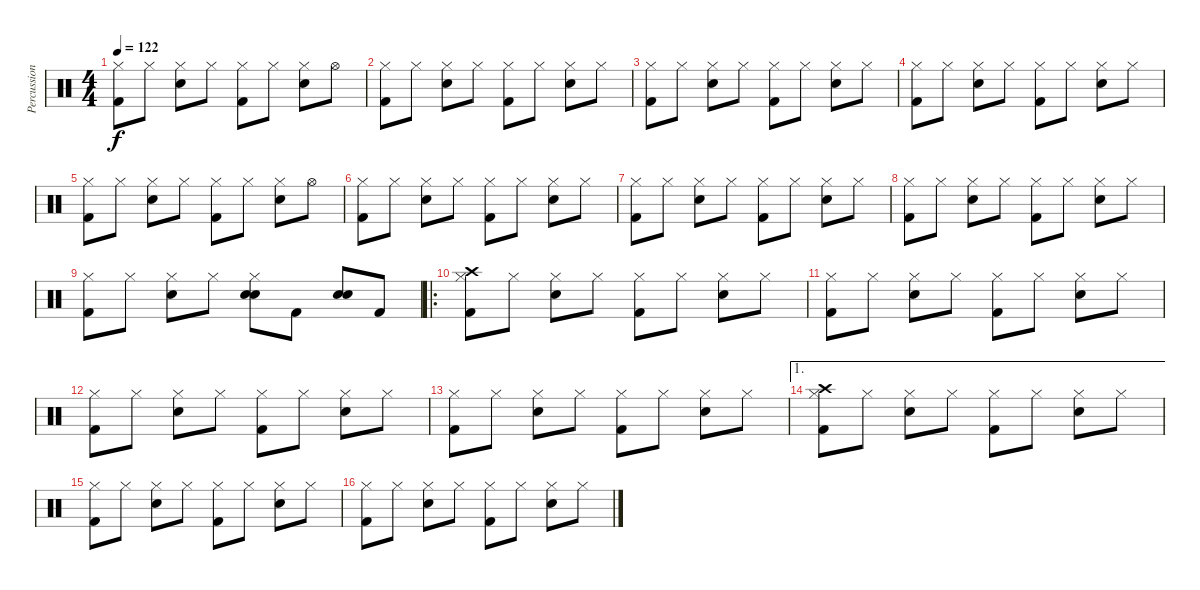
\track ("Percussion" "Percussion") {instrument percussion}
\staff {score}
\articulation defaults
\ts (4 4)
\tempo 122
\clef neutral
\ks c
("Hi-Hat (closed)" "Kick (hit) 2").8{dy f} "Hi-Hat (closed)".8 ("Hi-Hat (closed)" "Snare (hit) 2").8 "Hi-Hat (closed)".8 ("Hi-Hat (closed)" "Kick (hit) 2").8 "Hi-Hat (closed)".8 ("Hi-Hat (closed)" "Snare (hit) 2").8 "Hi-Hat (open)".8 |
("Hi-Hat (closed)" "Kick (hit) 2").8 "Hi-Hat (closed)".8 ("Hi-Hat (closed)" "Snare (hit) 2").8 "Hi-Hat (closed)".8 ("Hi-Hat (closed)" "Kick (hit) 2").8 "Hi-Hat (closed)".8 ("Hi-Hat (closed)" "Snare (hit) 2").8 "Hi-Hat (closed)".8 |
("Hi-Hat (closed)" "Kick (hit) 2").8 "Hi-Hat (closed)".8 ("Hi-Hat (closed)" "Snare (hit) 2").8 "Hi-Hat (closed)".8 ("Hi-Hat (closed)" "Kick (hit) 2").8 "Hi-Hat (closed)".8 ("Hi-Hat (closed)" "Snare (hit) 2").8 "Hi-Hat (closed)".8 |
("Hi-Hat (closed)" "Kick (hit) 2").8 "Hi-Hat (closed)".8 ("Hi-Hat (closed)" "Snare (hit) 2").8 "Hi-Hat (closed)".8 ("Hi-Hat (closed)" "Kick (hit) 2").8 "Hi-Hat (closed)".8 ("Hi-Hat (closed)" "Snare (hit) 2").8 "Hi-Hat (closed)".8 |
("Hi-Hat (closed)" "Kick (hit) 2").8 "Hi-Hat (closed)".8 ("Hi-Hat (closed)" "Snare (hit) 2").8 "Hi-Hat (closed)".8 ("Hi-Hat (closed)" "Kick (hit) 2").8 "Hi-Hat (closed)".8 ("Hi-Hat (closed)" "Snare (hit) 2").8 "Hi-Hat (open)".8 |
("Hi-Hat (closed)" "Kick (hit) 2").8 "Hi-Hat (closed)".8 ("Hi-Hat (closed)" "Snare (hit) 2").8 "Hi-Hat (closed)".8 ("Hi-Hat (closed)" "Kick (hit) 2").8 "Hi-Hat (closed)".8 ("Hi-Hat (closed)" "Snare (hit) 2").8 "Hi-Hat (closed)".8 |
("Hi-Hat (closed)" "Kick (hit) 2").8 "Hi-Hat (closed)".8 ("Hi-Hat (closed)" "Snare (hit) 2").8 "Hi-Hat (closed)".8 ("Hi-Hat (closed)" "Kick (hit) 2").8 "Hi-Hat (closed)".8 ("Hi-Hat (closed)" "Snare (hit) 2").8 "Hi-Hat (closed)".8 |
("Hi-Hat (closed)" "Kick (hit) 2").8 "Hi-Hat (closed)".8 ("Hi-Hat (closed)" "Snare (hit) 2").8 "Hi-Hat (closed)".8 ("Hi-Hat (closed)" "Kick (hit) 2").8 "Hi-Hat (closed)".8 ("Hi-Hat (closed)" "Snare (hit) 2").8 "Hi-Hat (closed)".8 |
("Hi-Hat (closed)" "Kick (hit) 2").8 "Hi-Hat (closed)".8 ("Hi-Hat (closed)" "Snare (hit) 2").8 "Hi-Hat (closed)".8 ("Hi-Hat (closed)" "Snare (hit) 2" "Snare (hit) 2").8 "Kick (hit) 2".8 ("Snare (hit) 2" "Snare (hit) 2").8 "Kick (hit) 2".8 |
\ro
("Crash high (hit)" "Hi-Hat (closed)" "Kick (hit) 2").8 "Hi-Hat (closed)".8 ("Hi-Hat (closed)" "Snare (hit) 2").8 "Hi-Hat (closed)".8 ("Hi-Hat (closed)" "Kick (hit) 2").8 "Hi-Hat (closed)".8 ("Hi-Hat (closed)" "Snare (hit) 2").8 "Hi-Hat (closed)".8 |
("Hi-Hat (closed)" "Kick (hit) 2").8 "Hi-Hat (closed)".8 ("Hi-Hat (closed)" "Snare (hit) 2").8 "Hi-Hat (closed)".8 ("Hi-Hat (closed)" "Kick (hit) 2").8 "Hi-Hat (closed)".8 ("Hi-Hat (closed)" "Snare (hit) 2").8 "Hi-Hat (closed)".8 |
("Hi-Hat (closed)" "Kick (hit) 2").8 "Hi-Hat (closed)".8 ("Hi-Hat (closed)" "Snare (hit) 2").8 "Hi-Hat (closed)".8 ("Hi-Hat (closed)" "Kick (hit) 2").8 "Hi-Hat (closed)".8 ("Hi-Hat (closed)" "Snare (hit) 2").8 "Hi-Hat (closed)".8 |
("Hi-Hat (closed)" "Kick (hit) 2").8 "Hi-Hat (closed)".8 ("Hi-Hat (closed)" "Snare (hit) 2").8 "Hi-Hat (closed)".8 ("Hi-Hat (closed)" "Kick (hit) 2").8 "Hi-Hat (closed)".8 ("Hi-Hat (closed)" "Snare (hit) 2").8 "Hi-Hat (closed)".8 |
\ae 1
("Crash high (hit)" "Hi-Hat (closed)" "Kick (hit) 2").8 "Hi-Hat (closed)".8 ("Hi-Hat (closed)" "Snare (hit) 2").8 "Hi-Hat (closed)".8 ("Hi-Hat (closed)" "Kick (hit) 2").8 "Hi-Hat (closed)".8 ("Hi-Hat (closed)" "Snare (hit) 2").8 "Hi-Hat (closed)".8 |
("Hi-Hat (closed)" "Kick (hit) 2").8 "Hi-Hat (closed)".8 ("Hi-Hat (closed)" "Snare (hit) 2").8 "Hi-Hat (closed)".8 ("Hi-Hat (closed)" "Kick (hit) 2").8 "Hi-Hat (closed)".8 ("Hi-Hat (closed)" "Snare (hit) 2").8 "Hi-Hat (closed)".8 |
("Hi-Hat (closed)" "Kick (hit) 2").8 "Hi-Hat (closed)".8 ("Hi-Hat (closed)" "Snare (hit) 2").8 "Hi-Hat (closed)".8 ("Hi-Hat (closed)" "Kick (hit) 2").8 "Hi-Hat (closed)".8 ("Hi-Hat (closed)" "Snare (hit) 2").8 "Hi-Hat (closed)".8
